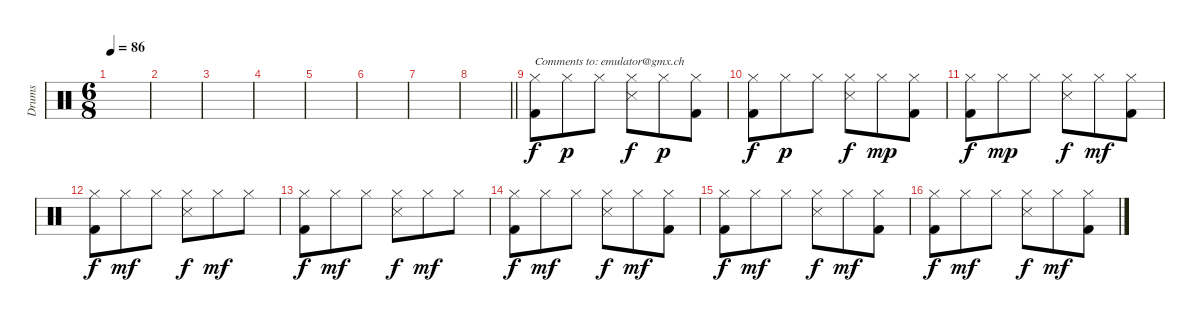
\track ("Drums" "Drums") {instrument percussion}
\staff {score}
\articulation defaults
\ts (6 8)
\tempo 86
\clef neutral
\ks c
|
|
|
|
|
|
|
\barLineRight lightlight
|
("Hi-Hat (closed)" "Kick (hit) 2").8{txt "Comments to: emulator@gmx.ch" volume 8} "Hi-Hat (closed)".8{dy p} "Hi-Hat (closed)".8 ("Hi-Hat (closed)" "Snare (side stick) 3").8{dy f} "Hi-Hat (closed)".8{dy p} ("Hi-Hat (closed)" "Kick (hit) 2").8 |
("Hi-Hat (closed)" "Kick (hit) 2").8{dy f} "Hi-Hat (closed)".8{dy p} "Hi-Hat (closed)".8 ("Hi-Hat (closed)" "Snare (side stick) 3").8{dy f} "Hi-Hat (closed)".8{dy mp} ("Hi-Hat (closed)" "Kick (hit) 2").8 |
("Hi-Hat (closed)" "Kick (hit) 2").8{dy f} "Hi-Hat (closed)".8{dy mp} "Hi-Hat (closed)".8 ("Hi-Hat (closed)" "Snare (side stick) 3").8{dy f} "Hi-Hat (closed)".8{dy mf} ("Hi-Hat (closed)" "Kick (hit) 2").8 |
("Hi-Hat (closed)" "Kick (hit) 2").8{dy f} "Hi-Hat (closed)".8{dy mf} "Hi-Hat (closed)".8 ("Hi-Hat (closed)" "Snare (side stick) 3").8{dy f} "Hi-Hat (closed)".8{dy mf} "Hi-Hat (closed)".8 |
("Hi-Hat (closed)" "Kick (hit) 2").8{dy f} "Hi-Hat (closed)".8{dy mf} "Hi-Hat (closed)".8 ("Hi-Hat (closed)" "Snare (side stick) 3").8{dy f} "Hi-Hat (closed)".8{dy mf} "Hi-Hat (closed)".8 |
("Hi-Hat (closed)" "Kick (hit) 2").8{dy f} "Hi-Hat (closed)".8{dy mf} "Hi-Hat (closed)".8 ("Hi-Hat (closed)" "Snare (side stick) 3").8{dy f} "Hi-Hat (closed)".8{dy mf} ("Hi-Hat (closed)" "Kick (hit) 2").8 |
("Hi-Hat (closed)" "Kick (hit) 2").8{dy f} "Hi-Hat (closed)".8{dy mf} "Hi-Hat (closed)".8 ("Hi-Hat (closed)" "Snare (side stick) 3").8{dy f} "Hi-Hat (closed)".8{dy mf} ("Hi-Hat (closed)" "Kick (hit) 2").8 |
("Hi-Hat (closed)" "Kick (hit) 2").8{dy f} "Hi-Hat (closed)".8{dy mf} "Hi-Hat (closed)".8 ("Hi-Hat (closed)" "Snare (side stick) 3").8{dy f} "Hi-Hat (closed)".8{dy mf} ("Hi-Hat (closed)" "Kick (hit) 2").8
